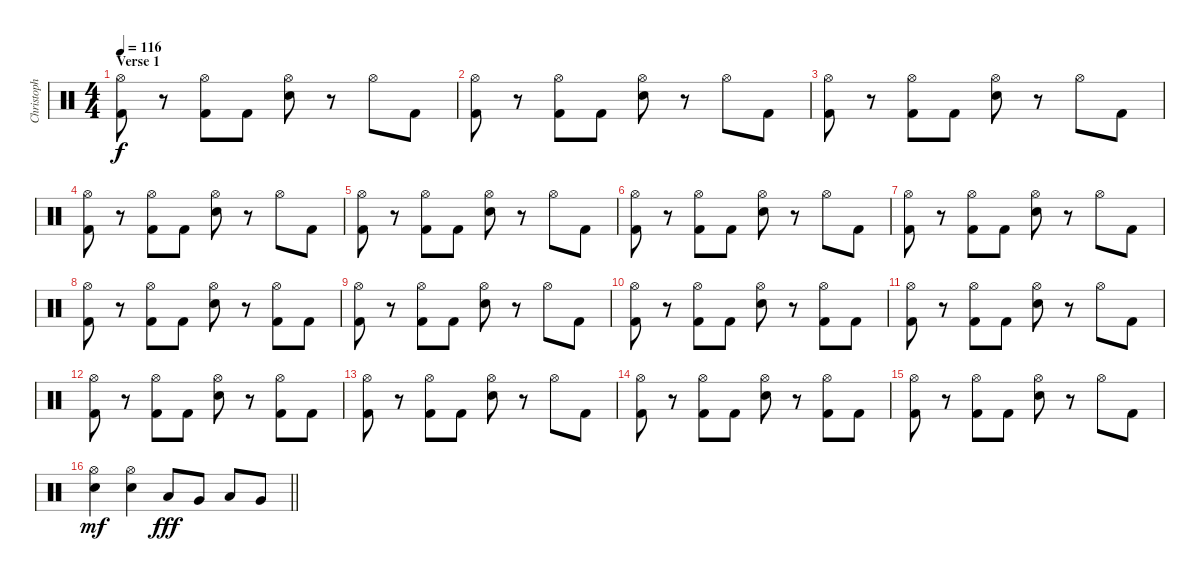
\track ("Christoph Schneider" "Christoph ") {instrument percussion}
\staff {score}
\articulation defaults
\ts (4 4)
\section ("" "Verse 1")
\tempo 116
\clef neutral
\ks c
("Hi-Hat (open)" "Kick (hit) 2").8{dy f} r.8 ("Hi-Hat (open)" "Kick (hit) 2").8 "Kick (hit) 2".8 ("Hi-Hat (open)" "Snare (hit) 2").8 r.8 "Hi-Hat (open)".8 "Kick (hit) 2".8 |
("Hi-Hat (open)" "Kick (hit) 2").8 r.8 ("Hi-Hat (open)" "Kick (hit) 2").8 "Kick (hit) 2".8 ("Hi-Hat (open)" "Snare (hit) 2").8 r.8 "Hi-Hat (open)".8 "Kick (hit) 2".8 |
("Hi-Hat (open)" "Kick (hit) 2").8 r.8 ("Hi-Hat (open)" "Kick (hit) 2").8 "Kick (hit) 2".8 ("Hi-Hat (open)" "Snare (hit) 2").8 r.8 "Hi-Hat (open)".8 "Kick (hit) 2".8 |
("Hi-Hat (open)" "Kick (hit) 2").8 r.8 ("Hi-Hat (open)" "Kick (hit) 2").8 "Kick (hit) 2".8 ("Hi-Hat (open)" "Snare (hit) 2").8 r.8 "Hi-Hat (open)".8 "Kick (hit) 2".8 |
("Hi-Hat (open)" "Kick (hit) 2").8 r.8 ("Hi-Hat (open)" "Kick (hit) 2").8 "Kick (hit) 2".8 ("Hi-Hat (open)" "Snare (hit) 2").8 r.8 "Hi-Hat (open)".8 "Kick (hit) 2".8 |
("Hi-Hat (open)" "Kick (hit) 2").8 r.8 ("Hi-Hat (open)" "Kick (hit) 2").8 "Kick (hit) 2".8 ("Hi-Hat (open)" "Snare (hit) 2").8 r.8 "Hi-Hat (open)".8 "Kick (hit) 2".8 |
("Hi-Hat (open)" "Kick (hit) 2").8 r.8 ("Hi-Hat (open)" "Kick (hit) 2").8 "Kick (hit) 2".8 ("Hi-Hat (open)" "Snare (hit) 2").8 r.8 "Hi-Hat (open)".8 "Kick (hit) 2".8 |
("Hi-Hat (open)" "Kick (hit) 2").8 r.8 ("Hi-Hat (open)" "Kick (hit) 2").8 "Kick (hit) 2".8 ("Hi-Hat (open)" "Snare (hit) 2").8 r.8 ("Hi-Hat (open)" "Kick (hit) 2").8 "Kick (hit) 2".8 |
("Hi-Hat (open)" "Kick (hit) 2").8 r.8 ("Hi-Hat (open)" "Kick (hit) 2").8 "Kick (hit) 2".8 ("Hi-Hat (open)" "Snare (hit) 2").8 r.8 "Hi-Hat (open)".8 "Kick (hit) 2".8 |
("Hi-Hat (open)" "Kick (hit) 2").8 r.8 ("Hi-Hat (open)" "Kick (hit) 2").8 "Kick (hit) 2".8 ("Hi-Hat (open)" "Snare (hit) 2").8 r.8 ("Hi-Hat (open)" "Kick (hit) 2").8 "Kick (hit) 2".8 |
("Hi-Hat (open)" "Kick (hit) 2").8 r.8 ("Hi-Hat (open)" "Kick (hit) 2").8 "Kick (hit) 2".8 ("Hi-Hat (open)" "Snare (hit) 2").8 r.8 "Hi-Hat (open)".8 "Kick (hit) 2".8 |
("Hi-Hat (open)" "Kick (hit) 2").8 r.8 ("Hi-Hat (open)" "Kick (hit) 2").8 "Kick (hit) 2".8 ("Hi-Hat (open)" "Snare (hit) 2").8 r.8 ("Hi-Hat (open)" "Kick (hit) 2").8 "Kick (hit) 2".8 |
("Hi-Hat (open)" "Kick (hit) 2").8 r.8 ("Hi-Hat (open)" "Kick (hit) 2").8 "Kick (hit) 2".8 ("Hi-Hat (open)" "Snare (hit) 2").8 r.8 "Hi-Hat (open)".8 "Kick (hit) 2".8 |
("Hi-Hat (open)" "Kick (hit) 2").8 r.8 ("Hi-Hat (open)" "Kick (hit) 2").8 "Kick (hit) 2".8 ("Hi-Hat (open)" "Snare (hit) 2").8 r.8 ("Hi-Hat (open)" "Kick (hit) 2").8 "Kick (hit) 2".8 |
("Hi-Hat (open)" "Kick (hit) 2").8 r.8 ("Hi-Hat (open)" "Kick (hit) 2").8 "Kick (hit) 2".8 ("Hi-Hat (open)" "Snare (hit) 2").8 r.8 "Hi-Hat (open)".8 "Kick (hit) 2".8 |
\barLineRight lightlight
("Hi-Hat (open)" "Snare (hit) 2").4{dy mf} ("Hi-Hat (open)" "Snare (hit) 2").4 "Low Tom (hit)".8{dy fff} "Very Low Tom (hit)".8 "Low Tom (hit)".8 "Very Low Tom (hit)".8
